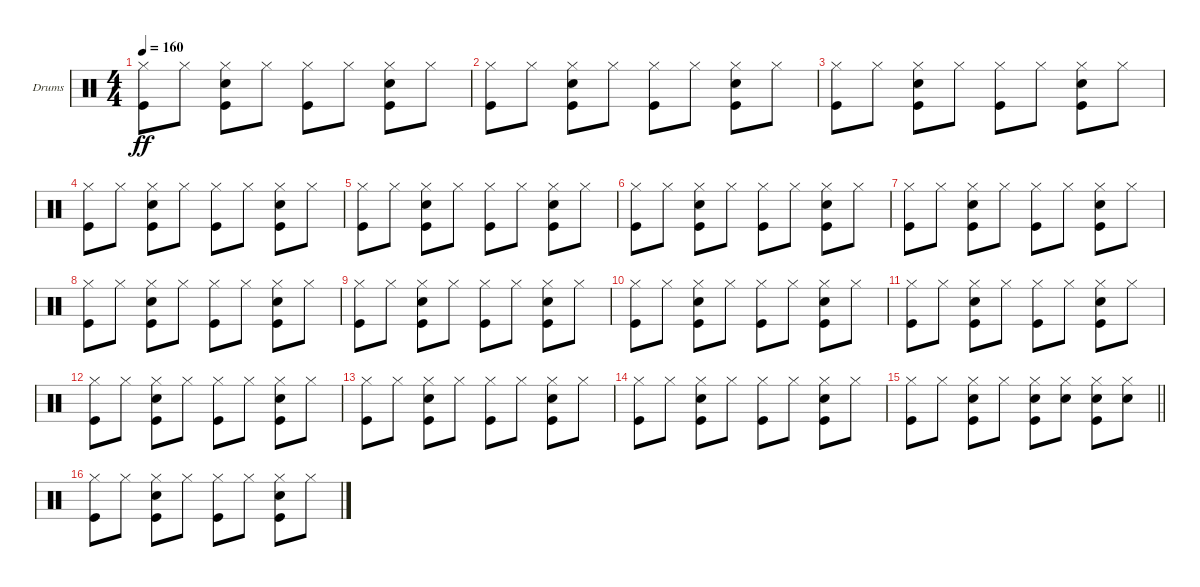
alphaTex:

\bracketExtendMode groupsimilarinstruments
\firstSystemTrackNameOrientation horizontal
\otherSystemsTrackNameOrientation horizontal
\track ("Ударные" "Drums") {instrument percussion}
\staff {score}
\articulation defaults
\ts (4 4)
\tempo 160
\clef neutral
\ks c
("Hi-Hat (closed)" "Kick (hit)").8{dy ff} "Hi-Hat (closed)".8 ("Hi-Hat (closed)" "Snare (hit) 2" "Kick (hit)").8 "Hi-Hat (closed)".8 ("Hi-Hat (closed)" "Kick (hit)").8 "Hi-Hat (closed)".8 ("Hi-Hat (closed)" "Snare (hit) 2" "Kick (hit)").8 "Hi-Hat (closed)".8 |
("Hi-Hat (closed)" "Kick (hit)").8 "Hi-Hat (closed)".8 ("Hi-Hat (closed)" "Snare (hit) 2" "Kick (hit)").8 "Hi-Hat (closed)".8 ("Hi-Hat (closed)" "Kick (hit)").8 "Hi-Hat (closed)".8 ("Hi-Hat (closed)" "Snare (hit) 2" "Kick (hit)").8 "Hi-Hat (closed)".8 |
("Hi-Hat (closed)" "Kick (hit)").8 "Hi-Hat (closed)".8 ("Hi-Hat (closed)" "Snare (hit) 2" "Kick (hit)").8 "Hi-Hat (closed)".8 ("Hi-Hat (closed)" "Kick (hit)").8 "Hi-Hat (closed)".8 ("Hi-Hat (closed)" "Snare (hit) 2" "Kick (hit)").8 "Hi-Hat (closed)".8 |
("Hi-Hat (closed)" "Kick (hit)").8 "Hi-Hat (closed)".8 ("Hi-Hat (closed)" "Snare (hit) 2" "Kick (hit)").8 "Hi-Hat (closed)".8 ("Hi-Hat (closed)" "Kick (hit)").8 "Hi-Hat (closed)".8 ("Hi-Hat (closed)" "Snare (hit) 2" "Kick (hit)").8 "Hi-Hat (closed)".8 |
("Hi-Hat (closed)" "Kick (hit)").8 "Hi-Hat (closed)".8 ("Hi-Hat (closed)" "Snare (hit) 2" "Kick (hit)").8 "Hi-Hat (closed)".8 ("Hi-Hat (closed)" "Kick (hit)").8 "Hi-Hat (closed)".8 ("Hi-Hat (closed)" "Snare (hit) 2" "Kick (hit)").8 "Hi-Hat (closed)".8 |
("Hi-Hat (closed)" "Kick (hit)").8 "Hi-Hat (closed)".8 ("Hi-Hat (closed)" "Snare (hit) 2" "Kick (hit)").8 "Hi-Hat (closed)".8 ("Hi-Hat (closed)" "Kick (hit)").8 "Hi-Hat (closed)".8 ("Hi-Hat (closed)" "Snare (hit) 2" "Kick (hit)").8 "Hi-Hat (closed)".8 |
("Hi-Hat (closed)" "Kick (hit)").8 "Hi-Hat (closed)".8 ("Hi-Hat (closed)" "Snare (hit) 2" "Kick (hit)").8 "Hi-Hat (closed)".8 ("Hi-Hat (closed)" "Kick (hit)").8 "Hi-Hat (closed)".8 ("Hi-Hat (closed)" "Snare (hit) 2" "Kick (hit)").8 "Hi-Hat (closed)".8 |
("Hi-Hat (closed)" "Kick (hit)").8 "Hi-Hat (closed)".8 ("Hi-Hat (closed)" "Snare (hit) 2" "Kick (hit)").8 "Hi-Hat (closed)".8 ("Hi-Hat (closed)" "Kick (hit)").8 "Hi-Hat (closed)".8 ("Hi-Hat (closed)" "Snare (hit) 2" "Kick (hit)").8 "Hi-Hat (closed)".8 |
("Hi-Hat (closed)" "Kick (hit)").8 "Hi-Hat (closed)".8 ("Hi-Hat (closed)" "Snare (hit) 2" "Kick (hit)").8 "Hi-Hat (closed)".8 ("Hi-Hat (closed)" "Kick (hit)").8 "Hi-Hat (closed)".8 ("Hi-Hat (closed)" "Snare (hit) 2" "Kick (hit)").8 "Hi-Hat (closed)".8 |
("Hi-Hat (closed)" "Kick (hit)").8 "Hi-Hat (closed)".8 ("Hi-Hat (closed)" "Snare (hit) 2" "Kick (hit)").8 "Hi-Hat (closed)".8 ("Hi-Hat (closed)" "Kick (hit)").8 "Hi-Hat (closed)".8 ("Hi-Hat (closed)" "Snare (hit) 2" "Kick (hit)").8 "Hi-Hat (closed)".8 |
("Hi-Hat (closed)" "Kick (hit)").8 "Hi-Hat (closed)".8 ("Hi-Hat (closed)" "Snare (hit) 2" "Kick (hit)").8 "Hi-Hat (closed)".8 ("Hi-Hat (closed)" "Kick (hit)").8 "Hi-Hat (closed)".8 ("Hi-Hat (closed)" "Snare (hit) 2" "Kick (hit)").8 "Hi-Hat (closed)".8 |
("Hi-Hat (closed)" "Kick (hit)").8 "Hi-Hat (closed)".8 ("Hi-Hat (closed)" "Snare (hit) 2" "Kick (hit)").8 "Hi-Hat (closed)".8 ("Hi-Hat (closed)" "Kick (hit)").8 "Hi-Hat (closed)".8 ("Hi-Hat (closed)" "Snare (hit) 2" "Kick (hit)").8 "Hi-Hat (closed)".8 |
("Hi-Hat (closed)" "Kick (hit)").8 "Hi-Hat (closed)".8 ("Hi-Hat (closed)" "Snare (hit) 2" "Kick (hit)").8 "Hi-Hat (closed)".8 ("Hi-Hat (closed)" "Kick (hit)").8 "Hi-Hat (closed)".8 ("Hi-Hat (closed)" "Snare (hit) 2" "Kick (hit)").8 "Hi-Hat (closed)".8 |
("Hi-Hat (closed)" "Kick (hit)").8 "Hi-Hat (closed)".8 ("Hi-Hat (closed)" "Snare (hit) 2" "Kick (hit)").8 "Hi-Hat (closed)".8 ("Hi-Hat (closed)" "Kick (hit)").8 "Hi-Hat (closed)".8 ("Hi-Hat (closed)" "Snare (hit) 2" "Kick (hit)").8 "Hi-Hat (closed)".8 |
\barLineRight lightlight
("Hi-Hat (closed)" "Kick (hit)").8 "Hi-Hat (closed)".8 ("Hi-Hat (closed)" "Snare (hit) 2" "Kick (hit)").8 "Hi-Hat (closed)".8 ("Hi-Hat (closed)" "Snare (hit) 2" "Kick (hit)").8 ("Hi-Hat (closed)" "Snare (hit) 2").8 ("Hi-Hat (closed)" "Snare (hit) 2" "Kick (hit)").8 ("Hi-Hat (closed)" "Snare (hit) 2").8 |
("Hi-Hat (closed)" "Kick (hit)").8 "Hi-Hat (closed)".8 ("Hi-Hat (closed)" "Snare (hit) 2" "Kick (hit)").8 "Hi-Hat (closed)".8 ("Hi-Hat (closed)" "Kick (hit)").8 "Hi-Hat (closed)".8 ("Hi-Hat (closed)" "Snare (hit) 2" "Kick (hit)").8 "Hi-Hat (closed)".8
